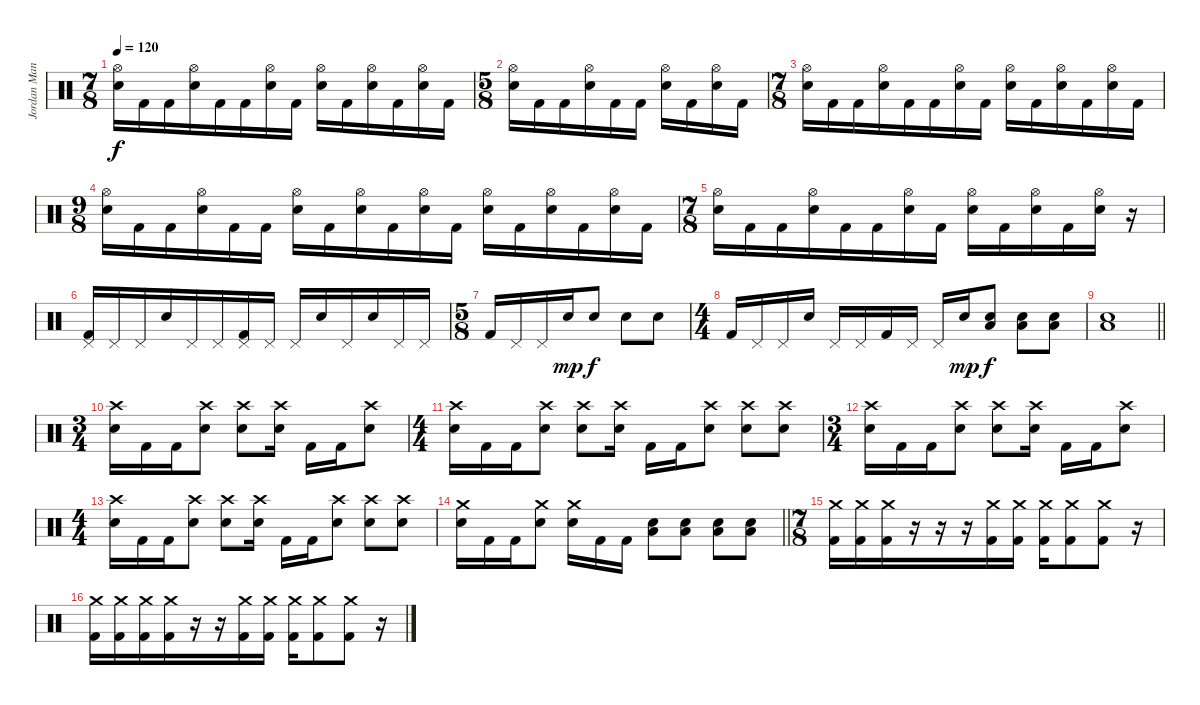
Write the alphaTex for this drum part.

\track ("Jordan Mancino" "Jordan Man") {instrument percussion}
\staff
\articulation defaults
\ts (7 8)
\section ("" "")
\tempo 120
\clef neutral
\ks c
("Hi-Hat (open)" "Snare (hit) 2").16{dy f} "Kick (hit) 2".16 "Kick (hit) 2".16 ("Hi-Hat (open)" "Snare (hit) 2").16 "Kick (hit) 2".16 "Kick (hit) 2".16 ("Hi-Hat (open)" "Snare (hit) 2").16 "Kick (hit) 2".16 ("Hi-Hat (open)" "Snare (hit) 2").16 "Kick (hit) 2".16 ("Hi-Hat (open)" "Snare (hit) 2").16 "Kick (hit) 2".16 ("Hi-Hat (open)" "Snare (hit) 2").16 "Kick (hit) 2".16 |
\ts (5 8)
("Hi-Hat (open)" "Snare (hit) 2").16 "Kick (hit) 2".16 "Kick (hit) 2".16 ("Hi-Hat (open)" "Snare (hit) 2").16 "Kick (hit) 2".16 "Kick (hit) 2".16 ("Hi-Hat (open)" "Snare (hit) 2").16 "Kick (hit) 2".16 ("Hi-Hat (open)" "Snare (hit) 2").16 "Kick (hit) 2".16 |
\ts (7 8)
("Hi-Hat (open)" "Snare (hit) 2").16 "Kick (hit) 2".16 "Kick (hit) 2".16 ("Hi-Hat (open)" "Snare (hit) 2").16 "Kick (hit) 2".16 "Kick (hit) 2".16 ("Hi-Hat (open)" "Snare (hit) 2").16 "Kick (hit) 2".16 ("Hi-Hat (open)" "Snare (hit) 2").16 "Kick (hit) 2".16 ("Hi-Hat (open)" "Snare (hit) 2").16 "Kick (hit) 2".16 ("Hi-Hat (open)" "Snare (hit) 2").16 "Kick (hit) 2".16 |
\ts (9 8)
("Hi-Hat (open)" "Snare (hit) 2").16 "Kick (hit) 2".16 "Kick (hit) 2".16 ("Hi-Hat (open)" "Snare (hit) 2").16 "Kick (hit) 2".16 "Kick (hit) 2".16 ("Hi-Hat (open)" "Snare (hit) 2").16 "Kick (hit) 2".16 ("Hi-Hat (open)" "Snare (hit) 2").16 "Kick (hit) 2".16 ("Hi-Hat (open)" "Snare (hit) 2").16 "Kick (hit) 2".16 ("Hi-Hat (open)" "Snare (hit) 2").16 "Kick (hit) 2".16 ("Hi-Hat (open)" "Snare (hit) 2").16 "Kick (hit) 2".16 ("Hi-Hat (open)" "Snare (hit) 2").16 "Kick (hit) 2".16 |
\ts (7 8)
("Hi-Hat (open)" "Snare (hit) 2").16 "Kick (hit) 2".16 "Kick (hit) 2".16 ("Hi-Hat (open)" "Snare (hit) 2").16 "Kick (hit) 2".16 "Kick (hit) 2".16 ("Hi-Hat (open)" "Snare (hit) 2").16 "Kick (hit) 2".16 ("Hi-Hat (open)" "Snare (hit) 2").16 "Kick (hit) 2".16 ("Hi-Hat (open)" "Snare (hit) 2").16 "Kick (hit) 2".16 ("Hi-Hat (open)" "Snare (hit) 2").16 r.16 |
("Pedal Hi-Hat (hit)" "Kick (hit) 2").16 "Pedal Hi-Hat (hit)".16 "Pedal Hi-Hat (hit)".16 "Snare (hit) 2".16 "Pedal Hi-Hat (hit)".16 "Pedal Hi-Hat (hit)".16 ("Pedal Hi-Hat (hit)" "Kick (hit) 2").16 "Pedal Hi-Hat (hit)".16 "Pedal Hi-Hat (hit)".16 "Snare (hit) 2".16 "Pedal Hi-Hat (hit)".16 "Snare (hit) 2".16 "Pedal Hi-Hat (hit)".16 "Pedal Hi-Hat (hit)".16 |
\ts (5 8)
"Kick (hit) 2".16 "Pedal Hi-Hat (hit)".16 "Pedal Hi-Hat (hit)".16 "Snare (hit) 2".16{dy mp} "Snare (hit) 2".8{dy f} "Snare (hit) 2".8 "Snare (hit) 2".8 |
\ts (4 4)
"Kick (hit) 2".16 "Pedal Hi-Hat (hit)".16 "Pedal Hi-Hat (hit)".16 "Snare (hit) 2".16 "Pedal Hi-Hat (hit)".16 "Pedal Hi-Hat (hit)".16 "Kick (hit) 2".16 "Pedal Hi-Hat (hit)".16 "Pedal Hi-Hat (hit)".16 "Snare (hit) 2".16{dy mp} ("Snare (hit) 2" "Low Floor Tom (hit)").8{dy f} ("Snare (hit) 2" "Low Floor Tom (hit)").8 ("Snare (hit) 2" "Low Floor Tom (hit)").8 |
\barLineRight lightlight
("Snare (hit) 2" "Low Floor Tom (hit)").1 |
\ts (3 4)
("Crash high (hit)" "Snare (hit) 2").16 "Kick (hit) 2".16 "Kick (hit) 2".16 ("Crash high (hit)" "Snare (hit) 2").8 ("Crash high (hit)" "Snare (hit) 2").8 ("Crash high (hit)" "Snare (hit) 2").16 "Kick (hit) 2".16 "Kick (hit) 2".16 ("Crash high (hit)" "Snare (hit) 2").8 |
\ts (4 4)
("Crash high (hit)" "Snare (hit) 2").16 "Kick (hit) 2".16 "Kick (hit) 2".16 ("Crash high (hit)" "Snare (hit) 2").8 ("Crash high (hit)" "Snare (hit) 2").8 ("Crash high (hit)" "Snare (hit) 2").16 "Kick (hit) 2".16 "Kick (hit) 2".16 ("Crash high (hit)" "Snare (hit) 2").8 ("Crash high (hit)" "Snare (hit) 2").8 ("Crash high (hit)" "Snare (hit) 2").8 |
\ts (3 4)
("Crash high (hit)" "Snare (hit) 2").16 "Kick (hit) 2".16 "Kick (hit) 2".16 ("Crash high (hit)" "Snare (hit) 2").8 ("Crash high (hit)" "Snare (hit) 2").8 ("Crash high (hit)" "Snare (hit) 2").16 "Kick (hit) 2".16 "Kick (hit) 2".16 ("Crash high (hit)" "Snare (hit) 2").8 |
\ts (4 4)
("Crash high (hit)" "Snare (hit) 2").16 "Kick (hit) 2".16 "Kick (hit) 2".16 ("Crash high (hit)" "Snare (hit) 2").8 ("Crash high (hit)" "Snare (hit) 2").8 ("Crash high (hit)" "Snare (hit) 2").16 "Kick (hit) 2".16 "Kick (hit) 2".16 ("Crash high (hit)" "Snare (hit) 2").8 ("Crash high (hit)" "Snare (hit) 2").8 ("Crash high (hit)" "Snare (hit) 2").8 |
\barLineRight lightlight
("Crash medium (hit)" "Snare (hit) 2").16 "Kick (hit) 2".16 "Kick (hit) 2".16 ("Crash medium (hit)" "Snare (hit) 2").8 ("Crash medium (hit)" "Snare (hit) 2").16 "Kick (hit) 2".16 "Kick (hit) 2".16 ("Snare (hit) 2" "Low Floor Tom (hit)").8 ("Snare (hit) 2" "Low Floor Tom (hit)").8 ("Snare (hit) 2" "Low Floor Tom (hit)").8 ("Snare (hit) 2" "Low Floor Tom (hit)").8 |
\ts (7 8)
("Crash medium (hit)" "Kick (hit) 2").16 ("Crash medium (hit)" "Kick (hit) 2").16 ("Crash medium (hit)" "Kick (hit) 2").16 r.16 r.16 r.16 ("Crash medium (hit)" "Kick (hit) 2").16 ("Crash medium (hit)" "Kick (hit) 2").16 ("Crash medium (hit)" "Kick (hit) 2").16 ("Crash medium (hit)" "Kick (hit) 2").8 ("Crash medium (hit)" "Kick (hit) 2").8 r.16 |
("Crash medium (hit)" "Kick (hit) 2").16 ("Crash medium (hit)" "Kick (hit) 2").16 ("Crash medium (hit)" "Kick (hit) 2").16 ("Crash medium (hit)" "Kick (hit) 2").16 r.16 r.16 ("Crash medium (hit)" "Kick (hit) 2").16 ("Crash medium (hit)" "Kick (hit) 2").16 ("Crash medium (hit)" "Kick (hit) 2").16 ("Crash medium (hit)" "Kick (hit) 2").8 ("Crash medium (hit)" "Kick (hit) 2").8 r.16
